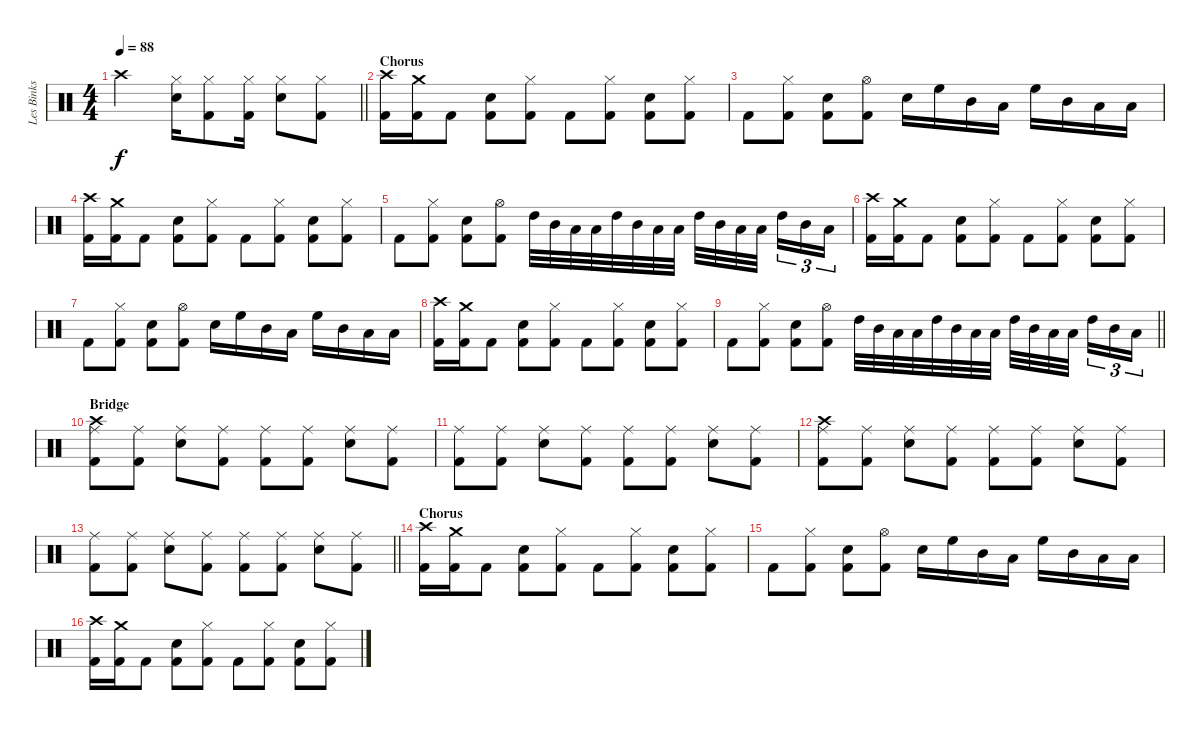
\track ("Les Binks" "Les Binks") {instrument percussion}
\staff {score}
\articulation defaults
\ts (4 4)
\tempo 88
\clef neutral
\barLineRight lightlight
\ks c "Crash high (hit)".2{dy f}
("Hi-Hat (closed)" "Snare (hit) 2").16 ("Hi-Hat (closed)" "Kick (hit) 2").8 ("Hi-Hat (closed)" "Kick (hit) 2").16 ("Hi-Hat (closed)" "Snare (hit) 2").8 ("Hi-Hat (closed)" "Kick (hit) 2").8 |
\section ("" "Chorus")
("Crash high (hit)" "Kick (hit) 2").16 ("Crash medium (hit)" "Kick (hit) 2").16 "Kick (hit) 2".8 ("Snare (hit) 2" "Kick (hit) 2").8 ("Hi-Hat (closed)" "Kick (hit) 2").8 "Kick (hit) 2".8 ("Hi-Hat (closed)" "Kick (hit) 2").8 ("Snare (hit) 2" "Kick (hit) 2").8 ("Hi-Hat (closed)" "Kick (hit) 2").8 |
"Kick (hit) 2".8 ("Hi-Hat (closed)" "Kick (hit) 2").8 ("Snare (hit) 2" "Kick (hit) 2").8 ("Hi-Hat (open)" "Kick (hit) 2").8 "Snare (hit) 2".16 "High Floor Tom (hit)".16 "Mid Tom (hit)".16 "Low Tom (hit)".16 "High Floor Tom (hit)".16 "Mid Tom (hit)".16 "Low Tom (hit)".16 "Low Floor Tom (hit)".16 |
("Crash high (hit)" "Kick (hit) 2").16 ("Crash medium (hit)" "Kick (hit) 2").16 "Kick (hit) 2".8 ("Snare (hit) 2" "Kick (hit) 2").8 ("Hi-Hat (closed)" "Kick (hit) 2").8 "Kick (hit) 2".8 ("Hi-Hat (closed)" "Kick (hit) 2").8 ("Snare (hit) 2" "Kick (hit) 2").8 ("Hi-Hat (closed)" "Kick (hit) 2").8 |
"Kick (hit) 2".8 ("Hi-Hat (closed)" "Kick (hit) 2").8 ("Snare (hit) 2" "Kick (hit) 2").8 ("Hi-Hat (open)" "Kick (hit) 2").8 "High Tom (hit)".32 "Mid Tom (hit)".32 "Low Tom (hit)".32 "Low Floor Tom (hit)".32 "High Tom (hit)".32 "Mid Tom (hit)".32 "Low Tom (hit)".32 "Low Floor Tom (hit)".32 "High Tom (hit)".32 "Mid Tom (hit)".32 "Low Tom (hit)".32 "Low Floor Tom (hit)".32{beam splitsecondary} "High Tom (hit)".16{tu (3 2)} "Mid Tom (hit)".16{tu (3 2)} "Low Tom (hit)".16{tu (3 2)} |
("Crash high (hit)" "Kick (hit) 2").16 ("Crash medium (hit)" "Kick (hit) 2").16 "Kick (hit) 2".8 ("Snare (hit) 2" "Kick (hit) 2").8 ("Hi-Hat (closed)" "Kick (hit) 2").8 "Kick (hit) 2".8 ("Hi-Hat (closed)" "Kick (hit) 2").8 ("Snare (hit) 2" "Kick (hit) 2").8 ("Hi-Hat (closed)" "Kick (hit) 2").8 |
"Kick (hit) 2".8 ("Hi-Hat (closed)" "Kick (hit) 2").8 ("Snare (hit) 2" "Kick (hit) 2").8 ("Hi-Hat (open)" "Kick (hit) 2").8 "Snare (hit) 2".16 "High Floor Tom (hit)".16 "Mid Tom (hit)".16 "Low Tom (hit)".16 "High Floor Tom (hit)".16 "Mid Tom (hit)".16 "Low Tom (hit)".16 "Low Floor Tom (hit)".16 |
("Crash high (hit)" "Kick (hit) 2").16 ("Crash medium (hit)" "Kick (hit) 2").16 "Kick (hit) 2".8 ("Snare (hit) 2" "Kick (hit) 2").8 ("Hi-Hat (closed)" "Kick (hit) 2").8 "Kick (hit) 2".8 ("Hi-Hat (closed)" "Kick (hit) 2").8 ("Snare (hit) 2" "Kick (hit) 2").8 ("Hi-Hat (closed)" "Kick (hit) 2").8 |
\barLineRight lightlight "Kick (hit) 2".8
("Hi-Hat (closed)" "Kick (hit) 2").8 ("Snare (hit) 2" "Kick (hit) 2").8 ("Hi-Hat (open)" "Kick (hit) 2").8 "High Tom (hit)".32 "Mid Tom (hit)".32 "Low Tom (hit)".32 "Low Floor Tom (hit)".32 "High Tom (hit)".32 "Mid Tom (hit)".32 "Low Tom (hit)".32 "Low Floor Tom (hit)".32 "High Tom (hit)".32 "Mid Tom (hit)".32 "Low Tom (hit)".32 "Low Floor Tom (hit)".32{beam splitsecondary} "High Tom (hit)".16{tu (3 2)} "Mid Tom (hit)".16{tu (3 2)} "Low Tom (hit)".16{tu (3 2)} |
\section ("" "Bridge")
("Crash high (hit)" "Ride (middle)" "Kick (hit) 2").8 ("Ride (middle)" "Kick (hit) 2").8 ("Ride (middle)" "Snare (hit) 2").8 ("Ride (middle)" "Kick (hit) 2").8 ("Ride (middle)" "Kick (hit) 2").8 ("Ride (middle)" "Kick (hit) 2").8 ("Ride (middle)" "Snare (hit) 2").8 ("Ride (middle)" "Kick (hit) 2").8 |
("Ride (middle)" "Kick (hit) 2").8 ("Ride (middle)" "Kick (hit) 2").8 ("Ride (middle)" "Snare (hit) 2").8 ("Ride (middle)" "Kick (hit) 2").8 ("Ride (middle)" "Kick (hit) 2").8 ("Ride (middle)" "Kick (hit) 2").8 ("Ride (middle)" "Snare (hit) 2").8 ("Ride (middle)" "Kick (hit) 2").8 |
("Crash high (hit)" "Ride (middle)" "Kick (hit) 2").8 ("Ride (middle)" "Kick (hit) 2").8 ("Ride (middle)" "Snare (hit) 2").8 ("Ride (middle)" "Kick (hit) 2").8 ("Ride (middle)" "Kick (hit) 2").8 ("Ride (middle)" "Kick (hit) 2").8 ("Ride (middle)" "Snare (hit) 2").8 ("Ride (middle)" "Kick (hit) 2").8 |
\barLineRight lightlight
("Ride (middle)" "Kick (hit) 2").8 ("Ride (middle)" "Kick (hit) 2").8 ("Ride (middle)" "Snare (hit) 2").8 ("Ride (middle)" "Kick (hit) 2").8 ("Ride (middle)" "Kick (hit) 2").8 ("Ride (middle)" "Kick (hit) 2").8 ("Ride (middle)" "Snare (hit) 2").8 ("Ride (middle)" "Kick (hit) 2").8 |
\section ("" "Chorus")
("Crash high (hit)" "Kick (hit) 2").16 ("Crash medium (hit)" "Kick (hit) 2").16 "Kick (hit) 2".8 ("Snare (hit) 2" "Kick (hit) 2").8 ("Hi-Hat (closed)" "Kick (hit) 2").8 "Kick (hit) 2".8 ("Hi-Hat (closed)" "Kick (hit) 2").8 ("Snare (hit) 2" "Kick (hit) 2").8 ("Hi-Hat (closed)" "Kick (hit) 2").8 |
"Kick (hit) 2".8 ("Hi-Hat (closed)" "Kick (hit) 2").8 ("Snare (hit) 2" "Kick (hit) 2").8 ("Hi-Hat (open)" "Kick (hit) 2").8 "Snare (hit) 2".16 "High Floor Tom (hit)".16 "Mid Tom (hit)".16 "Low Tom (hit)".16 "High Floor Tom (hit)".16 "Mid Tom (hit)".16 "Low Tom (hit)".16 "Low Floor Tom (hit)".16 |
("Crash high (hit)" "Kick (hit) 2").16 ("Crash medium (hit)" "Kick (hit) 2").16 "Kick (hit) 2".8 ("Snare (hit) 2" "Kick (hit) 2").8 ("Hi-Hat (closed)" "Kick (hit) 2").8 "Kick (hit) 2".8 ("Hi-Hat (closed)" "Kick (hit) 2").8 ("Snare (hit) 2" "Kick (hit) 2").8 ("Hi-Hat (closed)" "Kick (hit) 2").8
